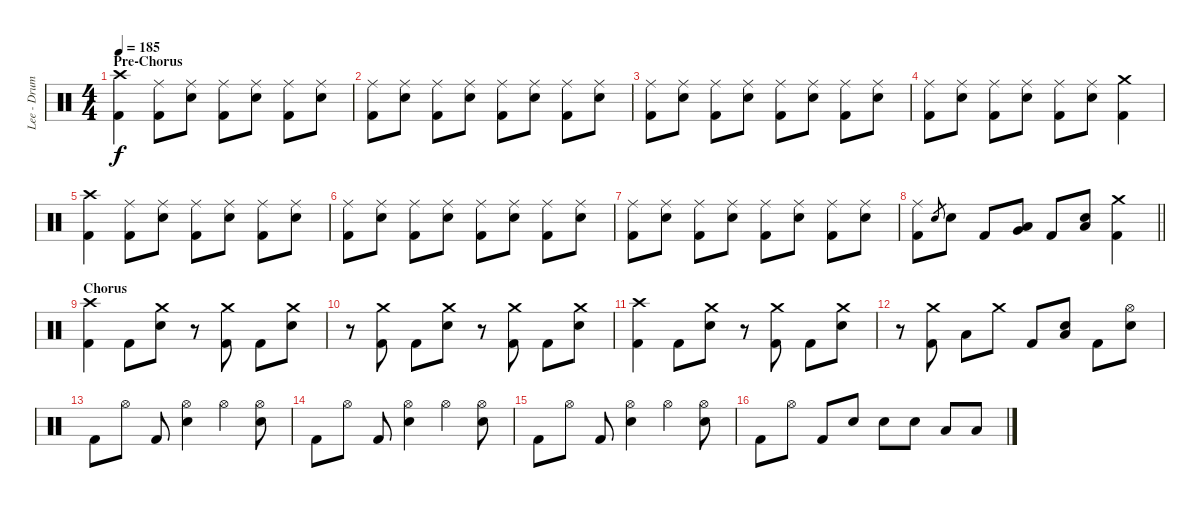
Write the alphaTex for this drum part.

\track ("Lee - Drums" "Lee - Drum") {instrument percussion}
\staff {score}
\articulation defaults
\ts (4 4)
\section ("" "Pre-Chorus")
\tempo 185
\clef neutral
\ks c
("Crash high (hit)" "Kick (hit) 2").4{dy f} ("Ride (middle)" "Kick (hit) 2").8 ("Ride (middle)" "Snare (hit) 2").8 ("Ride (middle)" "Kick (hit) 2").8 ("Ride (middle)" "Snare (hit) 2").8 ("Ride (middle)" "Kick (hit) 2").8 ("Ride (middle)" "Snare (hit) 2").8 |
("Ride (middle)" "Kick (hit) 2").8 ("Ride (middle)" "Snare (hit) 2").8 ("Ride (middle)" "Kick (hit) 2").8 ("Ride (middle)" "Snare (hit) 2").8 ("Ride (middle)" "Kick (hit) 2").8 ("Ride (middle)" "Snare (hit) 2").8 ("Ride (middle)" "Kick (hit) 2").8 ("Ride (middle)" "Snare (hit) 2").8 |
("Ride (middle)" "Kick (hit) 2").8 ("Ride (middle)" "Snare (hit) 2").8 ("Ride (middle)" "Kick (hit) 2").8 ("Ride (middle)" "Snare (hit) 2").8 ("Ride (middle)" "Kick (hit) 2").8 ("Ride (middle)" "Snare (hit) 2").8 ("Ride (middle)" "Kick (hit) 2").8 ("Ride (middle)" "Snare (hit) 2").8 |
("Ride (middle)" "Kick (hit) 2").8 ("Ride (middle)" "Snare (hit) 2").8 ("Ride (middle)" "Kick (hit) 2").8 ("Ride (middle)" "Snare (hit) 2").8 ("Ride (middle)" "Kick (hit) 2").8 ("Ride (middle)" "Snare (hit) 2").8 ("Crash medium (hit)" "Kick (hit) 2").4 |
("Crash high (hit)" "Kick (hit) 2").4 ("Ride (middle)" "Kick (hit) 2").8 ("Ride (middle)" "Snare (hit) 2").8 ("Ride (middle)" "Kick (hit) 2").8 ("Ride (middle)" "Snare (hit) 2").8 ("Ride (middle)" "Kick (hit) 2").8 ("Ride (middle)" "Snare (hit) 2").8 |
("Ride (middle)" "Kick (hit) 2").8 ("Ride (middle)" "Snare (hit) 2").8 ("Ride (middle)" "Kick (hit) 2").8 ("Ride (middle)" "Snare (hit) 2").8 ("Ride (middle)" "Kick (hit) 2").8 ("Ride (middle)" "Snare (hit) 2").8 ("Ride (middle)" "Kick (hit) 2").8 ("Ride (middle)" "Snare (hit) 2").8 |
("Ride (middle)" "Kick (hit) 2").8 ("Ride (middle)" "Snare (hit) 2").8 ("Ride (middle)" "Kick (hit) 2").8 ("Ride (middle)" "Snare (hit) 2").8 ("Ride (middle)" "Kick (hit) 2").8 ("Ride (middle)" "Snare (hit) 2").8 ("Ride (middle)" "Kick (hit) 2").8 ("Ride (middle)" "Snare (hit) 2").8 |
\barLineRight lightlight
("Ride (middle)" "Kick (hit) 2").8 "Snare (hit) 2".8{gr} "Snare (hit) 2".8 "Kick (hit) 2".8 ("Low Tom (hit)" "Very Low Tom (hit)").8 "Kick (hit) 2".8 ("Snare (hit) 2" "Low Tom (hit)").8 ("Crash medium (hit)" "Kick (hit) 2").4 |
\section ("" "Chorus")
("Crash high (hit)" "Kick (hit) 2").4 "Kick (hit) 2".8 ("Crash medium (hit)" "Snare (hit) 2").8 r.8 ("Crash medium (hit)" "Kick (hit) 2").8 "Kick (hit) 2".8 ("Crash medium (hit)" "Snare (hit) 2").8 |
r.8 ("Crash medium (hit)" "Kick (hit) 2").8 "Kick (hit) 2".8 ("Crash medium (hit)" "Snare (hit) 2").8 r.8 ("Crash medium (hit)" "Kick (hit) 2").8 "Kick (hit) 2".8 ("Crash medium (hit)" "Snare (hit) 2").8 |
("Crash high (hit)" "Kick (hit) 2").4 "Kick (hit) 2".8 ("Crash medium (hit)" "Snare (hit) 2").8 r.8 ("Crash medium (hit)" "Kick (hit) 2").8 "Kick (hit) 2".8 ("Crash medium (hit)" "Snare (hit) 2").8 |
r.8 ("Crash medium (hit)" "Kick (hit) 2").8 "Low Tom (hit)".8 "Crash medium (hit)".8 "Kick (hit) 2".8 ("Snare (hit) 2" "Low Tom (hit)").8 "Kick (hit) 2".8 ("Hi-Hat (open)" "Snare (hit) 2").8 |
"Kick (hit) 2".8 "Hi-Hat (open)".8 "Kick (hit) 2".8 ("Hi-Hat (open)" "Snare (hit) 2").4 "Hi-Hat (open)".4 ("Hi-Hat (open)" "Snare (hit) 2").8 |
"Kick (hit) 2".8 "Hi-Hat (open)".8 "Kick (hit) 2".8 ("Hi-Hat (open)" "Snare (hit) 2").4 "Hi-Hat (open)".4 ("Hi-Hat (open)" "Snare (hit) 2").8 |
"Kick (hit) 2".8 "Hi-Hat (open)".8 "Kick (hit) 2".8 ("Hi-Hat (open)" "Snare (hit) 2").4 "Hi-Hat (open)".4 ("Hi-Hat (open)" "Snare (hit) 2").8 |
"Kick (hit) 2".8 "Hi-Hat (open)".8 "Kick (hit) 2".8 "Snare (hit) 2".8 "Snare (hit) 2".8 "Snare (hit) 2".8 "Low Tom (hit)".8 "Low Tom (hit)".8
